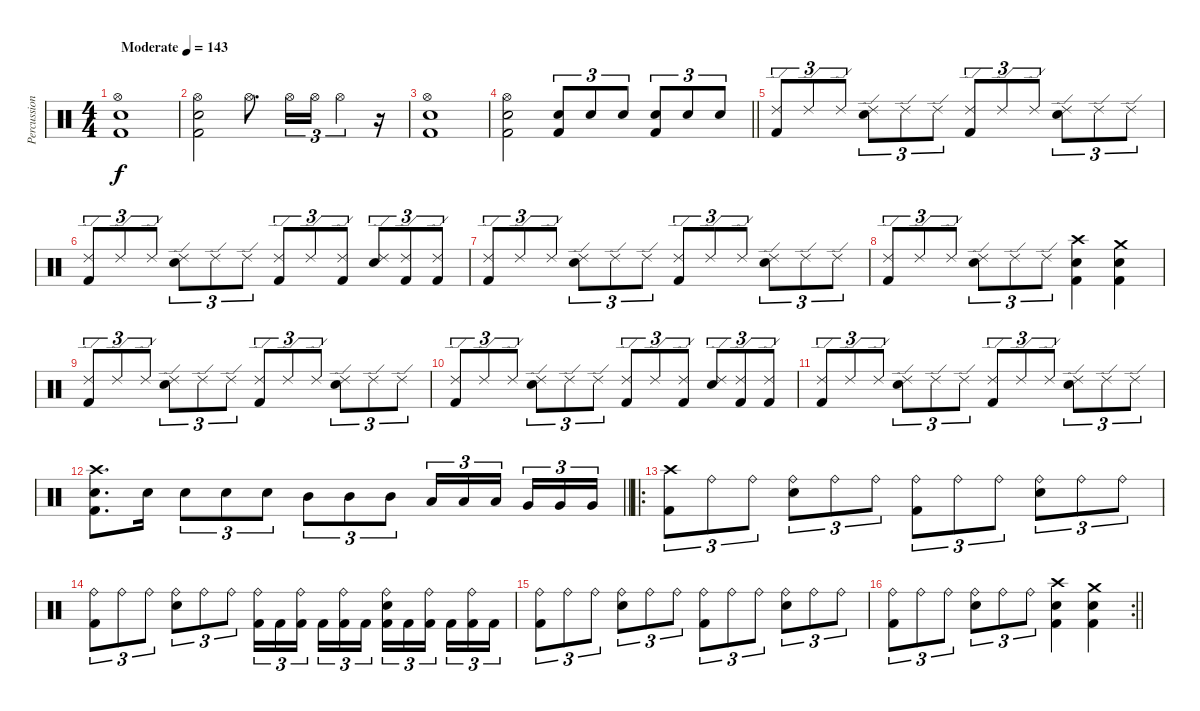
\track ("Percussion" "Percussion") {instrument percussion}
\staff {score}
\articulation defaults
\ts (4 4)
\section ("" "")
\tempo (143 "Moderate")
\clef neutral
\ks c
("Hi-Hat (open)" "Electric Snare (hit)" "Kick (hit) 2").1{dy f} |
("Hi-Hat (open)" "Electric Snare (hit)" "Kick (hit) 2").2 "Hi-Hat (open)".8{d} "Hi-Hat (open)".16{tu (3 2)} "Hi-Hat (open)".16{tu (3 2)} "Hi-Hat (open)".4{tu (3 2)} r.16 |
("Hi-Hat (open)" "Electric Snare (hit)" "Kick (hit) 2").1 |
\barLineRight lightlight
("Hi-Hat (open)" "Electric Snare (hit)" "Kick (hit) 2").2 ("Electric Snare (hit)" "Kick (hit) 2").8{tu (3 2)} "Electric Snare (hit)".8{tu (3 2)} "Electric Snare (hit)".8{tu (3 2)} ("Electric Snare (hit)" "Kick (hit) 2").8{tu (3 2)} "Electric Snare (hit)".8{tu (3 2)} "Electric Snare (hit)".8{tu (3 2)} |
\section ("" "")
("Ride (edge) 2" "Kick (hit) 2").8{tu (3 2)} "Ride (edge) 2".8{tu (3 2)} "Ride (edge) 2".8{tu (3 2)} ("Ride (edge) 2" "Electric Snare (hit)").8{tu (3 2)} "Ride (edge) 2".8{tu (3 2)} "Ride (edge) 2".8{tu (3 2)} ("Ride (edge) 2" "Kick (hit) 2").8{tu (3 2)} "Ride (edge) 2".8{tu (3 2)} "Ride (edge) 2".8{tu (3 2)} ("Ride (edge) 2" "Electric Snare (hit)").8{tu (3 2)} "Ride (edge) 2".8{tu (3 2)} "Ride (edge) 2".8{tu (3 2)} |
("Ride (edge) 2" "Kick (hit) 2").8{tu (3 2)} "Ride (edge) 2".8{tu (3 2)} "Ride (edge) 2".8{tu (3 2)} ("Ride (edge) 2" "Electric Snare (hit)").8{tu (3 2)} "Ride (edge) 2".8{tu (3 2)} "Ride (edge) 2".8{tu (3 2)} ("Ride (edge) 2" "Kick (hit) 2").8{tu (3 2)} "Ride (edge) 2".8{tu (3 2)} ("Ride (edge) 2" "Kick (hit) 2").8{tu (3 2)} ("Ride (edge) 2" "Electric Snare (hit)").8{tu (3 2)} ("Ride (edge) 2" "Kick (hit) 2").8{tu (3 2)} ("Ride (edge) 2" "Kick (hit) 2").8{tu (3 2)} |
("Ride (edge) 2" "Kick (hit) 2").8{tu (3 2)} "Ride (edge) 2".8{tu (3 2)} "Ride (edge) 2".8{tu (3 2)} ("Ride (edge) 2" "Electric Snare (hit)").8{tu (3 2)} "Ride (edge) 2".8{tu (3 2)} "Ride (edge) 2".8{tu (3 2)} ("Ride (edge) 2" "Kick (hit) 2").8{tu (3 2)} "Ride (edge) 2".8{tu (3 2)} "Ride (edge) 2".8{tu (3 2)} ("Ride (edge) 2" "Electric Snare (hit)").8{tu (3 2)} "Ride (edge) 2".8{tu (3 2)} "Ride (edge) 2".8{tu (3 2)} |
("Ride (edge) 2" "Kick (hit) 2").8{tu (3 2)} "Ride (edge) 2".8{tu (3 2)} "Ride (edge) 2".8{tu (3 2)} ("Ride (edge) 2" "Electric Snare (hit)").8{tu (3 2)} "Ride (edge) 2".8{tu (3 2)} "Ride (edge) 2".8{tu (3 2)} ("Crash high (hit)" "Electric Snare (hit)" "Kick (hit) 2").4 ("Crash medium (hit)" "Electric Snare (hit)" "Kick (hit) 2").4 |
("Ride (edge) 2" "Kick (hit) 2").8{tu (3 2)} "Ride (edge) 2".8{tu (3 2)} "Ride (edge) 2".8{tu (3 2)} ("Ride (edge) 2" "Electric Snare (hit)").8{tu (3 2)} "Ride (edge) 2".8{tu (3 2)} "Ride (edge) 2".8{tu (3 2)} ("Ride (edge) 2" "Kick (hit) 2").8{tu (3 2)} "Ride (edge) 2".8{tu (3 2)} "Ride (edge) 2".8{tu (3 2)} ("Ride (edge) 2" "Electric Snare (hit)").8{tu (3 2)} "Ride (edge) 2".8{tu (3 2)} "Ride (edge) 2".8{tu (3 2)} |
("Ride (edge) 2" "Kick (hit) 2").8{tu (3 2)} "Ride (edge) 2".8{tu (3 2)} "Ride (edge) 2".8{tu (3 2)} ("Ride (edge) 2" "Electric Snare (hit)").8{tu (3 2)} "Ride (edge) 2".8{tu (3 2)} "Ride (edge) 2".8{tu (3 2)} ("Ride (edge) 2" "Kick (hit) 2").8{tu (3 2)} "Ride (edge) 2".8{tu (3 2)} ("Ride (edge) 2" "Kick (hit) 2").8{tu (3 2)} ("Ride (edge) 2" "Electric Snare (hit)").8{tu (3 2)} ("Ride (edge) 2" "Kick (hit) 2").8{tu (3 2)} ("Ride (edge) 2" "Kick (hit) 2").8{tu (3 2)} |
("Ride (edge) 2" "Kick (hit) 2").8{tu (3 2)} "Ride (edge) 2".8{tu (3 2)} "Ride (edge) 2".8{tu (3 2)} ("Ride (edge) 2" "Electric Snare (hit)").8{tu (3 2)} "Ride (edge) 2".8{tu (3 2)} "Ride (edge) 2".8{tu (3 2)} ("Ride (edge) 2" "Kick (hit) 2").8{tu (3 2)} "Ride (edge) 2".8{tu (3 2)} "Ride (edge) 2".8{tu (3 2)} ("Ride (edge) 2" "Electric Snare (hit)").8{tu (3 2)} "Ride (edge) 2".8{tu (3 2)} "Ride (edge) 2".8{tu (3 2)} |
\barLineRight lightlight
("Crash high (hit)" "Electric Snare (hit)" "Kick (hit) 2").8{d} "Electric Snare (hit)".16 "Electric Snare (hit)".8{tu (3 2)} "Electric Snare (hit)".8{tu (3 2)} "Electric Snare (hit)".8{tu (3 2)} "Mid Tom (hit)".8{tu (3 2)} "Mid Tom (hit)".8{tu (3 2)} "Mid Tom (hit)".8{tu (3 2)} "Low Tom (hit)".16{tu (3 2)} "Low Tom (hit)".16{tu (3 2)} "Low Tom (hit)".16{tu (3 2) beam splitsecondary} "Very Low Tom (hit)".16{tu (3 2)} "Very Low Tom (hit)".16{tu (3 2)} "Very Low Tom (hit)".16{tu (3 2)} |
\ro
\section ("" "")
("Crash high (hit)" "Kick (hit) 2").8{tu (3 2)} "Ride (bell)".8{tu (3 2)} "Ride (bell)".8{tu (3 2)} ("Ride (bell)" "Electric Snare (hit)").8{tu (3 2)} "Ride (bell)".8{tu (3 2)} "Ride (bell)".8{tu (3 2)} ("Ride (bell)" "Kick (hit) 2").8{tu (3 2)} "Ride (bell)".8{tu (3 2)} "Ride (bell)".8{tu (3 2)} ("Ride (bell)" "Electric Snare (hit)").8{tu (3 2)} "Ride (bell)".8{tu (3 2)} "Ride (bell)".8{tu (3 2)} |
("Ride (bell)" "Kick (hit) 2").8{tu (3 2)} "Ride (bell)".8{tu (3 2)} "Ride (bell)".8{tu (3 2)} ("Ride (bell)" "Electric Snare (hit)").8{tu (3 2)} "Ride (bell)".8{tu (3 2)} "Ride (bell)".8{tu (3 2)} ("Ride (bell)" "Kick (hit) 2").16{tu (3 2)} "Kick (hit) 2".16{tu (3 2)} ("Ride (bell)" "Kick (hit) 2").16{tu (3 2) beam splitsecondary} "Kick (hit) 2".16{tu (3 2)} ("Ride (bell)" "Kick (hit) 2").16{tu (3 2)} "Kick (hit) 2".16{tu (3 2)} ("Ride (bell)" "Electric Snare (hit)" "Kick (hit) 2").16{tu (3 2)} "Kick (hit) 2".16{tu (3 2)} ("Ride (bell)" "Kick (hit) 2").16{tu (3 2) beam splitsecondary} "Kick (hit) 2".16{tu (3 2)} ("Ride (bell)" "Kick (hit) 2").16{tu (3 2)} "Kick (hit) 2".16{tu (3 2)} |
("Ride (bell)" "Kick (hit) 2").8{tu (3 2)} "Ride (bell)".8{tu (3 2)} "Ride (bell)".8{tu (3 2)} ("Ride (bell)" "Electric Snare (hit)").8{tu (3 2)} "Ride (bell)".8{tu (3 2)} "Ride (bell)".8{tu (3 2)} ("Ride (bell)" "Kick (hit) 2").8{tu (3 2)} "Ride (bell)".8{tu (3 2)} "Ride (bell)".8{tu (3 2)} ("Ride (bell)" "Electric Snare (hit)").8{tu (3 2)} "Ride (bell)".8{tu (3 2)} "Ride (bell)".8{tu (3 2)} |
\rc 2
\barLineRight lightlight
("Ride (bell)" "Kick (hit) 2").8{tu (3 2)} "Ride (bell)".8{tu (3 2)} "Ride (bell)".8{tu (3 2)} ("Ride (bell)" "Electric Snare (hit)").8{tu (3 2)} "Ride (bell)".8{tu (3 2)} "Ride (bell)".8{tu (3 2)} ("Crash high (hit)" "Electric Snare (hit)" "Kick (hit) 2").4 ("Crash medium (hit)" "Electric Snare (hit)" "Kick (hit) 2").4
